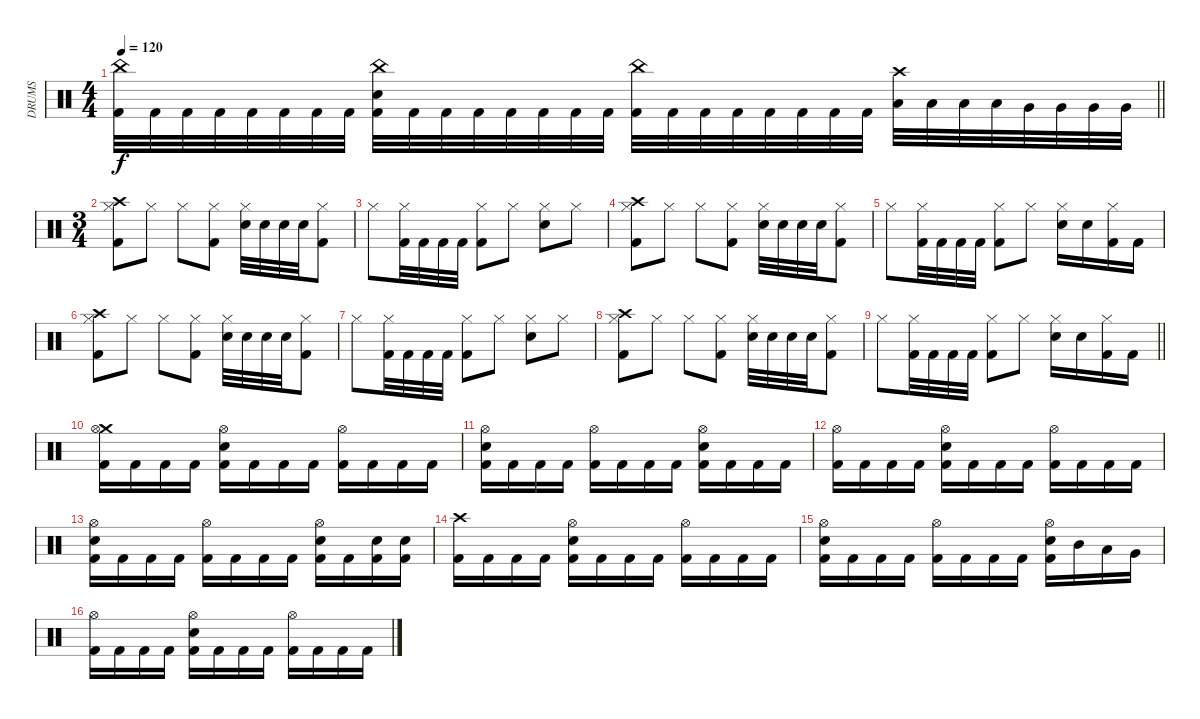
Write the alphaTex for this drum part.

\track ("DRUMS" "DRUMS") {instrument percussion}
\staff {score}
\articulation defaults
\ts (4 4)
\tempo 120
\clef neutral
\barLineRight lightlight
\ks c
("China (hit)" "Kick (hit) 2").32{dy f} "Kick (hit) 2".32 "Kick (hit) 2".32 "Kick (hit) 2".32 "Kick (hit) 2".32 "Kick (hit) 2".32 "Kick (hit) 2".32 "Kick (hit) 2".32 ("China (hit)" "Electric Snare (hit)" "Kick (hit) 2").32 "Kick (hit) 2".32 "Kick (hit) 2".32 "Kick (hit) 2".32 "Kick (hit) 2".32 "Kick (hit) 2".32 "Kick (hit) 2".32 "Kick (hit) 2".32 ("China (hit)" "Kick (hit) 2").32 "Kick (hit) 2".32 "Kick (hit) 2".32 "Kick (hit) 2".32 "Kick (hit) 2".32 "Kick (hit) 2".32 "Kick (hit) 2".32 "Kick (hit) 2".32 ("Crash high (hit)" "Low Tom (hit)").32 "Low Tom (hit)".32 "Low Tom (hit)".32 "Low Tom (hit)".32 "Very Low Tom (hit)".32 "Very Low Tom (hit)".32 "Very Low Tom (hit)".32 "Very Low Tom (hit)".32 |
\ts (3 4)
("Hi-Hat (closed)" "Crash high (hit)" "Kick (hit) 2").8 "Hi-Hat (closed)".8 "Hi-Hat (closed)".8 ("Hi-Hat (closed)" "Kick (hit) 2").8 ("Hi-Hat (closed)" "Electric Snare (hit)").32 "Electric Snare (hit)".32 "Electric Snare (hit)".32 "Electric Snare (hit)".32 ("Hi-Hat (closed)" "Kick (hit) 2").8 |
"Hi-Hat (closed)".8 ("Hi-Hat (closed)" "Kick (hit) 2").32 "Kick (hit) 2".32 "Kick (hit) 2".32 "Kick (hit) 2".32 ("Hi-Hat (closed)" "Kick (hit) 2").8 "Hi-Hat (closed)".8 ("Hi-Hat (closed)" "Electric Snare (hit)").8 "Hi-Hat (closed)".8 |
("Hi-Hat (closed)" "Crash high (hit)" "Kick (hit) 2").8 "Hi-Hat (closed)".8 "Hi-Hat (closed)".8 ("Hi-Hat (closed)" "Kick (hit) 2").8 ("Hi-Hat (closed)" "Electric Snare (hit)").32 "Electric Snare (hit)".32 "Electric Snare (hit)".32 "Electric Snare (hit)".32 ("Hi-Hat (closed)" "Kick (hit) 2").8 |
"Hi-Hat (closed)".8 ("Hi-Hat (closed)" "Kick (hit) 2").32 "Kick (hit) 2".32 "Kick (hit) 2".32 "Kick (hit) 2".32 ("Hi-Hat (closed)" "Kick (hit) 2").8 "Hi-Hat (closed)".8 ("Hi-Hat (closed)" "Electric Snare (hit)").16 "Electric Snare (hit)".16 ("Hi-Hat (closed)" "Kick (hit) 2").16 "Kick (hit) 2".16 |
("Hi-Hat (closed)" "Crash high (hit)" "Kick (hit) 2").8 "Hi-Hat (closed)".8 "Hi-Hat (closed)".8 ("Hi-Hat (closed)" "Kick (hit) 2").8 ("Hi-Hat (closed)" "Electric Snare (hit)").32 "Electric Snare (hit)".32 "Electric Snare (hit)".32 "Electric Snare (hit)".32 ("Hi-Hat (closed)" "Kick (hit) 2").8 |
"Hi-Hat (closed)".8 ("Hi-Hat (closed)" "Kick (hit) 2").32 "Kick (hit) 2".32 "Kick (hit) 2".32 "Kick (hit) 2".32 ("Hi-Hat (closed)" "Kick (hit) 2").8 "Hi-Hat (closed)".8 ("Hi-Hat (closed)" "Electric Snare (hit)").8 "Hi-Hat (closed)".8 |
("Hi-Hat (closed)" "Crash high (hit)" "Kick (hit) 2").8 "Hi-Hat (closed)".8 "Hi-Hat (closed)".8 ("Hi-Hat (closed)" "Kick (hit) 2").8 ("Hi-Hat (closed)" "Electric Snare (hit)").32 "Electric Snare (hit)".32 "Electric Snare (hit)".32 "Electric Snare (hit)".32 ("Hi-Hat (closed)" "Kick (hit) 2").8 |
\barLineRight lightlight "Hi-Hat (closed)".8
("Hi-Hat (closed)" "Kick (hit) 2").32 "Kick (hit) 2".32 "Kick (hit) 2".32 "Kick (hit) 2".32 ("Hi-Hat (closed)" "Kick (hit) 2").8 "Hi-Hat (closed)".8 ("Hi-Hat (closed)" "Electric Snare (hit)").16 "Electric Snare (hit)".16 ("Hi-Hat (closed)" "Kick (hit) 2").16 "Kick (hit) 2".16 |
("Crash medium (hit)" "Hi-Hat (open)" "Kick (hit) 2").16 "Kick (hit) 2".16 "Kick (hit) 2".16 "Kick (hit) 2".16 ("Hi-Hat (open)" "Electric Snare (hit)" "Kick (hit) 2").16 "Kick (hit) 2".16 "Kick (hit) 2".16 "Kick (hit) 2".16 ("Hi-Hat (open)" "Kick (hit) 2").16 "Kick (hit) 2".16 "Kick (hit) 2".16 "Kick (hit) 2".16 |
("Hi-Hat (open)" "Electric Snare (hit)" "Kick (hit) 2").16 "Kick (hit) 2".16 "Kick (hit) 2".16 "Kick (hit) 2".16 ("Hi-Hat (open)" "Kick (hit) 2").16 "Kick (hit) 2".16 "Kick (hit) 2".16 "Kick (hit) 2".16 ("Hi-Hat (open)" "Electric Snare (hit)" "Kick (hit) 2").16 "Kick (hit) 2".16 "Kick (hit) 2".16 "Kick (hit) 2".16 |
("Hi-Hat (open)" "Kick (hit) 2").16 "Kick (hit) 2".16 "Kick (hit) 2".16 "Kick (hit) 2".16 ("Hi-Hat (open)" "Electric Snare (hit)" "Kick (hit) 2").16 "Kick (hit) 2".16 "Kick (hit) 2".16 "Kick (hit) 2".16 ("Hi-Hat (open)" "Kick (hit) 2").16 "Kick (hit) 2".16 "Kick (hit) 2".16 "Kick (hit) 2".16 |
("Hi-Hat (open)" "Electric Snare (hit)" "Kick (hit) 2").16 "Kick (hit) 2".16 "Kick (hit) 2".16 "Kick (hit) 2".16 ("Hi-Hat (open)" "Kick (hit) 2").16 "Kick (hit) 2".16 "Kick (hit) 2".16 "Kick (hit) 2".16 ("Hi-Hat (open)" "Electric Snare (hit)" "Kick (hit) 2").16 "Kick (hit) 2".16 ("Electric Snare (hit)" "Kick (hit) 2").16 ("Electric Snare (hit)" "Kick (hit) 2").16 |
("Crash high (hit)" "Kick (hit) 2").16 "Kick (hit) 2".16 "Kick (hit) 2".16 "Kick (hit) 2".16 ("Hi-Hat (open)" "Electric Snare (hit)" "Kick (hit) 2").16 "Kick (hit) 2".16 "Kick (hit) 2".16 "Kick (hit) 2".16 ("Hi-Hat (open)" "Kick (hit) 2").16 "Kick (hit) 2".16 "Kick (hit) 2".16 "Kick (hit) 2".16 |
("Hi-Hat (open)" "Electric Snare (hit)" "Kick (hit) 2").16 "Kick (hit) 2".16 "Kick (hit) 2".16 "Kick (hit) 2".16 ("Hi-Hat (open)" "Kick (hit) 2").16 "Kick (hit) 2".16 "Kick (hit) 2".16 "Kick (hit) 2".16 ("Hi-Hat (open)" "Electric Snare (hit)" "Kick (hit) 2").16 "Mid Tom (hit)".16 "Low Tom (hit)".16 "Very Low Tom (hit)".16 |
("Hi-Hat (open)" "Kick (hit) 2").16 "Kick (hit) 2".16 "Kick (hit) 2".16 "Kick (hit) 2".16 ("Hi-Hat (open)" "Electric Snare (hit)" "Kick (hit) 2").16 "Kick (hit) 2".16 "Kick (hit) 2".16 "Kick (hit) 2".16 ("Hi-Hat (open)" "Kick (hit) 2").16 "Kick (hit) 2".16 "Kick (hit) 2".16 "Kick (hit) 2".16
